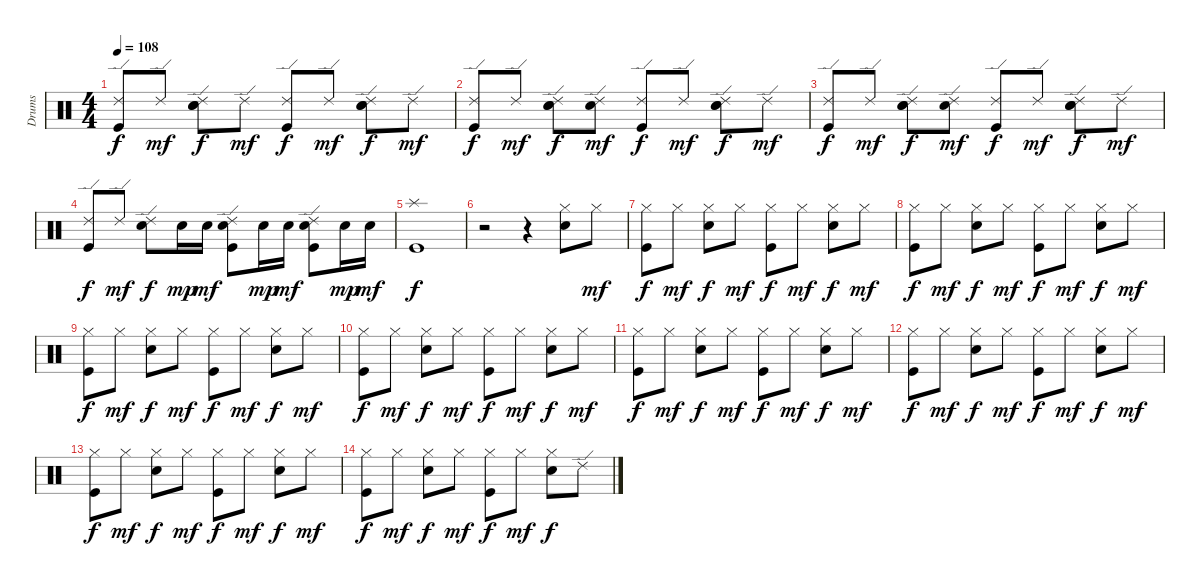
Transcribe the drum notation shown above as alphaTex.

\track ("Drums" "Drums") {instrument percussion}
\staff {score}
\articulation defaults
\ts (4 4)
\tempo 108
\clef neutral
\ks c
("Ride (edge) 2" "Kick (hit)").8{dy f} "Ride (edge) 2".8{dy mf} ("Ride (edge) 2" "Hand Clap (hit)" "Electric Snare (hit)").8{dy f} "Ride (edge) 2".8{dy mf} ("Ride (edge) 2" "Kick (hit)").8{dy f} "Ride (edge) 2".8{dy mf} ("Ride (edge) 2" "Hand Clap (hit)" "Electric Snare (hit)").8{dy f} "Ride (edge) 2".8{dy mf} |
("Ride (edge) 2" "Kick (hit)").8{dy f} "Ride (edge) 2".8{dy mf} ("Ride (edge) 2" "Hand Clap (hit)" "Electric Snare (hit)").8{dy f} ("Ride (edge) 2" "Hand Clap (hit)").8{dy mf} ("Ride (edge) 2" "Kick (hit)").8{dy f} "Ride (edge) 2".8{dy mf} ("Ride (edge) 2" "Hand Clap (hit)" "Electric Snare (hit)").8{dy f} "Ride (edge) 2".8{dy mf} |
("Ride (edge) 2" "Kick (hit)").8{dy f} "Ride (edge) 2".8{dy mf} ("Ride (edge) 2" "Hand Clap (hit)" "Electric Snare (hit)").8{dy f} ("Ride (edge) 2" "Hand Clap (hit)").8{dy mf} ("Ride (edge) 2" "Kick (hit)").8{dy f} "Ride (edge) 2".8{dy mf} ("Ride (edge) 2" "Hand Clap (hit)" "Electric Snare (hit)").8{dy f} "Ride (edge) 2".8{dy mf} |
("Ride (edge) 2" "Kick (hit)").8{dy f} "Ride (edge) 2".8{dy mf} ("Ride (edge) 2" "Electric Snare (hit)").8{dy f} "Electric Snare (hit)".16{dy mp} "Electric Snare (hit)".16{dy mf} ("Ride (edge) 2" "Hand Clap (hit)" "Kick (hit)").8 "Electric Snare (hit)".16{dy mp} "Electric Snare (hit)".16{dy mf} ("Ride (edge) 2" "Hand Clap (hit)" "Kick (hit)").8 "Electric Snare (hit)".16{dy mp} "Electric Snare (hit)".16{dy mf} |
("Splash (hit)" "Kick (hit)").1{dy f} |
r.2 r.4 ("Hi-Hat (closed)" "Electric Snare (hit)").8 "Hi-Hat (closed)".8{dy mf} |
("Hi-Hat (closed)" "Kick (hit)").8{dy f} "Hi-Hat (closed)".8{dy mf} ("Hi-Hat (closed)" "Electric Snare (hit)").8{dy f} "Hi-Hat (closed)".8{dy mf} ("Hi-Hat (closed)" "Kick (hit)").8{dy f} "Hi-Hat (closed)".8{dy mf} ("Hi-Hat (closed)" "Electric Snare (hit)").8{dy f} "Hi-Hat (closed)".8{dy mf} |
("Hi-Hat (closed)" "Kick (hit)").8{dy f} "Hi-Hat (closed)".8{dy mf} ("Hi-Hat (closed)" "Electric Snare (hit)").8{dy f} "Hi-Hat (closed)".8{dy mf} ("Hi-Hat (closed)" "Kick (hit)").8{dy f} "Hi-Hat (closed)".8{dy mf} ("Hi-Hat (closed)" "Electric Snare (hit)").8{dy f} "Hi-Hat (closed)".8{dy mf} |
("Hi-Hat (closed)" "Kick (hit)").8{dy f} "Hi-Hat (closed)".8{dy mf} ("Hi-Hat (closed)" "Electric Snare (hit)").8{dy f} "Hi-Hat (closed)".8{dy mf} ("Hi-Hat (closed)" "Kick (hit)").8{dy f} "Hi-Hat (closed)".8{dy mf} ("Hi-Hat (closed)" "Electric Snare (hit)").8{dy f} "Hi-Hat (closed)".8{dy mf} |
("Hi-Hat (closed)" "Kick (hit)").8{dy f} "Hi-Hat (closed)".8{dy mf} ("Hi-Hat (closed)" "Electric Snare (hit)").8{dy f} "Hi-Hat (closed)".8{dy mf} ("Hi-Hat (closed)" "Kick (hit)").8{dy f} "Hi-Hat (closed)".8{dy mf} ("Hi-Hat (closed)" "Electric Snare (hit)").8{dy f} "Hi-Hat (closed)".8{dy mf} |
("Hi-Hat (closed)" "Kick (hit)").8{dy f} "Hi-Hat (closed)".8{dy mf} ("Hi-Hat (closed)" "Electric Snare (hit)").8{dy f} "Hi-Hat (closed)".8{dy mf} ("Hi-Hat (closed)" "Kick (hit)").8{dy f} "Hi-Hat (closed)".8{dy mf} ("Hi-Hat (closed)" "Electric Snare (hit)").8{dy f} "Hi-Hat (closed)".8{dy mf} |
("Hi-Hat (closed)" "Kick (hit)").8{dy f} "Hi-Hat (closed)".8{dy mf} ("Hi-Hat (closed)" "Electric Snare (hit)").8{dy f} "Hi-Hat (closed)".8{dy mf} ("Hi-Hat (closed)" "Kick (hit)").8{dy f} "Hi-Hat (closed)".8{dy mf} ("Hi-Hat (closed)" "Electric Snare (hit)").8{dy f} "Hi-Hat (closed)".8{dy mf} |
("Hi-Hat (closed)" "Kick (hit)").8{dy f} "Hi-Hat (closed)".8{dy mf} ("Hi-Hat (closed)" "Electric Snare (hit)").8{dy f} "Hi-Hat (closed)".8{dy mf} ("Hi-Hat (closed)" "Kick (hit)").8{dy f} "Hi-Hat (closed)".8{dy mf} ("Hi-Hat (closed)" "Electric Snare (hit)").8{dy f} "Hi-Hat (closed)".8{dy mf} |
("Hi-Hat (closed)" "Kick (hit)").8{dy f} "Hi-Hat (closed)".8{dy mf} ("Hi-Hat (closed)" "Electric Snare (hit)").8{dy f} "Hi-Hat (closed)".8{dy mf} ("Hi-Hat (closed)" "Kick (hit)").8{dy f} "Hi-Hat (closed)".8{dy mf} ("Hi-Hat (closed)" "Electric Snare (hit)").8{dy f} "Ride (edge) 2".8
